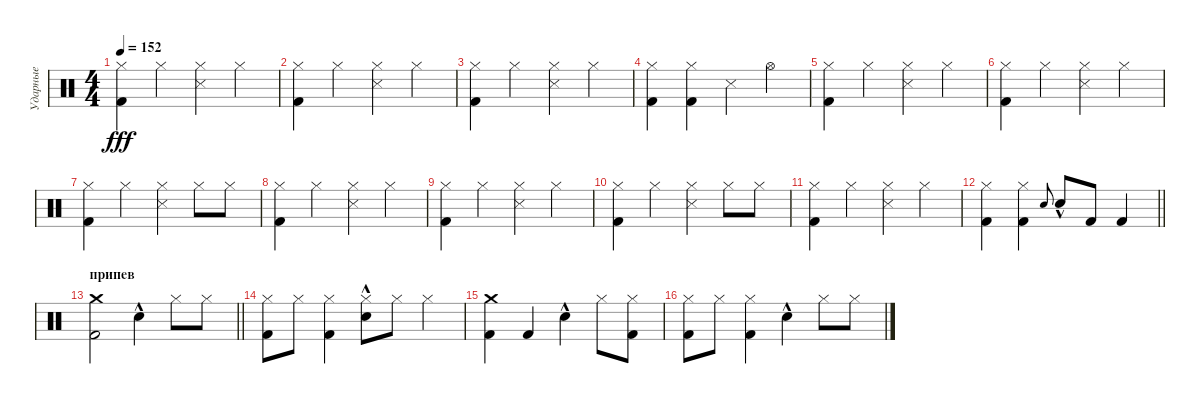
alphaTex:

\track ("Ударные" "Ударные") {instrument percussion}
\staff {score}
\articulation defaults
\ts (4 4)
\tempo 152
\clef neutral
\ks c
("Hi-Hat (closed)" "Kick (hit) 2").4{dy fff} "Hi-Hat (closed)".4 ("Hi-Hat (closed)" "Snare (side stick) 3").4 "Hi-Hat (closed)".4 |
("Hi-Hat (closed)" "Kick (hit) 2").4 "Hi-Hat (closed)".4 ("Hi-Hat (closed)" "Snare (side stick) 3").4 "Hi-Hat (closed)".4 |
("Hi-Hat (closed)" "Kick (hit) 2").4 "Hi-Hat (closed)".4 ("Hi-Hat (closed)" "Snare (side stick) 3").4 "Hi-Hat (closed)".4 |
("Hi-Hat (closed)" "Kick (hit) 2").4 ("Hi-Hat (closed)" "Kick (hit) 2").4 "Snare (side stick) 3".4 "Hi-Hat (open)".4 |
("Hi-Hat (closed)" "Kick (hit) 2").4 "Hi-Hat (closed)".4 ("Hi-Hat (closed)" "Snare (side stick) 3").4 "Hi-Hat (closed)".4 |
("Hi-Hat (closed)" "Kick (hit) 2").4 "Hi-Hat (closed)".4 ("Hi-Hat (closed)" "Snare (side stick) 3").4 "Hi-Hat (closed)".4 |
("Hi-Hat (closed)" "Kick (hit) 2").4 "Hi-Hat (closed)".4 ("Hi-Hat (closed)" "Snare (side stick) 3").4 "Hi-Hat (closed)".8 "Hi-Hat (closed)".8 |
("Hi-Hat (closed)" "Kick (hit) 2").4 "Hi-Hat (closed)".4 ("Hi-Hat (closed)" "Snare (side stick) 3").4 "Hi-Hat (closed)".4 |
("Hi-Hat (closed)" "Kick (hit) 2").4 "Hi-Hat (closed)".4 ("Hi-Hat (closed)" "Snare (side stick) 3").4 "Hi-Hat (closed)".4 |
("Hi-Hat (closed)" "Kick (hit) 2").4 "Hi-Hat (closed)".4 ("Hi-Hat (closed)" "Snare (side stick) 3").4 "Hi-Hat (closed)".8 "Hi-Hat (closed)".8 |
("Hi-Hat (closed)" "Kick (hit) 2").4 "Hi-Hat (closed)".4 ("Hi-Hat (closed)" "Snare (side stick) 3").4 "Hi-Hat (closed)".4 |
\barLineRight lightlight
("Hi-Hat (closed)" "Kick (hit) 2").4 ("Hi-Hat (closed)" "Kick (hit) 2").4 "Electric Snare (hit)".8{gr onbeat} "Electric Snare (hit)"{hac}.8 "Kick (hit) 2".8 "Kick (hit) 2".4 |
\section ("" "припев")
\barLineRight lightlight
("Crash medium (hit)" "Kick (hit) 2").2 "Electric Snare (hit)"{hac}.4 "Hi-Hat (closed)".8 "Hi-Hat (closed)".8 |
\section ("" "")
("Hi-Hat (closed)" "Kick (hit) 2").8 "Hi-Hat (closed)".8 ("Hi-Hat (closed)" "Kick (hit) 2").4 ("Hi-Hat (closed)" "Electric Snare (hit)"{hac}).8 "Hi-Hat (closed)".8 "Hi-Hat (closed)".4 |
("Crash medium (hit)" "Kick (hit) 2").4 "Kick (hit) 2".4 "Electric Snare (hit)"{hac}.4 "Hi-Hat (closed)".8 ("Hi-Hat (closed)" "Kick (hit) 2").8 |
("Hi-Hat (closed)" "Kick (hit) 2").8 "Hi-Hat (closed)".8 ("Hi-Hat (closed)" "Kick (hit) 2").4 "Electric Snare (hit)"{hac}.4 "Hi-Hat (closed)".8 "Hi-Hat (closed)".8
